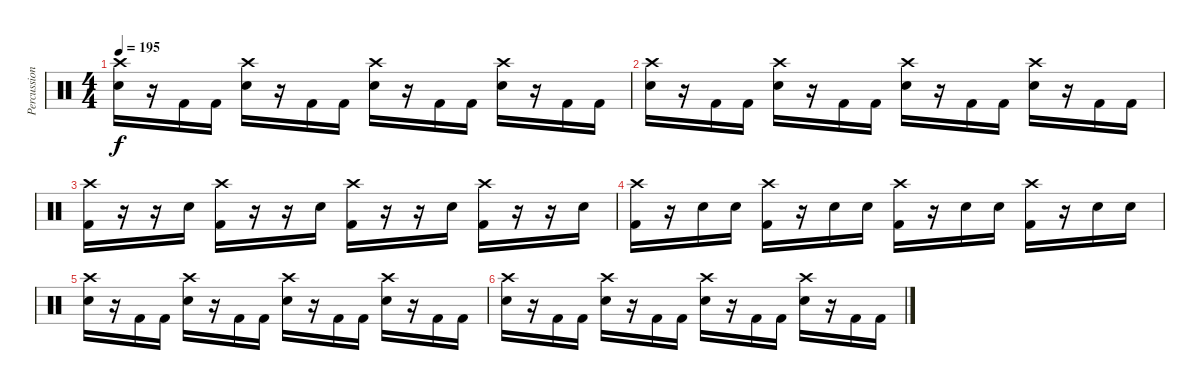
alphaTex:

\track ("Percussion" "Percussion") {instrument percussion}
\staff {score}
\articulation defaults
\ts (4 4)
\tempo 195
\clef neutral
\ks c
("Crash high (hit)" "Electric Snare (hit)").16{dy f} r.16 "Kick (hit) 2".16 "Kick (hit) 2".16 ("Crash high (hit)" "Electric Snare (hit)").16 r.16 "Kick (hit) 2".16 "Kick (hit) 2".16 ("Crash high (hit)" "Electric Snare (hit)").16 r.16 "Kick (hit) 2".16 "Kick (hit) 2".16 ("Crash high (hit)" "Electric Snare (hit)").16 r.16 "Kick (hit) 2".16 "Kick (hit) 2".16 |
("Crash high (hit)" "Electric Snare (hit)").16 r.16 "Kick (hit) 2".16 "Kick (hit) 2".16 ("Crash high (hit)" "Electric Snare (hit)").16 r.16 "Kick (hit) 2".16 "Kick (hit) 2".16 ("Crash high (hit)" "Electric Snare (hit)").16 r.16 "Kick (hit) 2".16 "Kick (hit) 2".16 ("Crash high (hit)" "Electric Snare (hit)").16 r.16 "Kick (hit) 2".16 "Kick (hit) 2".16 |
("Crash high (hit)" "Kick (hit) 2").16 r.16 r.16 "Electric Snare (hit)".16 ("Crash high (hit)" "Kick (hit) 2").16 r.16 r.16 "Electric Snare (hit)".16 ("Crash high (hit)" "Kick (hit) 2").16 r.16 r.16 "Electric Snare (hit)".16 ("Crash high (hit)" "Kick (hit) 2").16 r.16 r.16 "Electric Snare (hit)".16 |
("Crash high (hit)" "Kick (hit) 2").16 r.16 "Electric Snare (hit)".16 "Electric Snare (hit)".16 ("Crash high (hit)" "Kick (hit) 2").16 r.16 "Electric Snare (hit)".16 "Electric Snare (hit)".16 ("Crash high (hit)" "Kick (hit) 2").16 r.16 "Electric Snare (hit)".16 "Electric Snare (hit)".16 ("Crash high (hit)" "Kick (hit) 2").16 r.16 "Electric Snare (hit)".16 "Electric Snare (hit)".16 |
("Crash high (hit)" "Electric Snare (hit)").16 r.16 "Kick (hit) 2".16 "Kick (hit) 2".16 ("Crash high (hit)" "Electric Snare (hit)").16 r.16 "Kick (hit) 2".16 "Kick (hit) 2".16 ("Crash high (hit)" "Electric Snare (hit)").16 r.16 "Kick (hit) 2".16 "Kick (hit) 2".16 ("Crash high (hit)" "Electric Snare (hit)").16 r.16 "Kick (hit) 2".16 "Kick (hit) 2".16 |
("Crash high (hit)" "Electric Snare (hit)").16 r.16 "Kick (hit) 2".16 "Kick (hit) 2".16 ("Crash high (hit)" "Electric Snare (hit)").16 r.16 "Kick (hit) 2".16 "Kick (hit) 2".16 ("Crash high (hit)" "Electric Snare (hit)").16 r.16 "Kick (hit) 2".16 "Kick (hit) 2".16 ("Crash high (hit)" "Electric Snare (hit)").16 r.16 "Kick (hit) 2".16 "Kick (hit) 2".16
